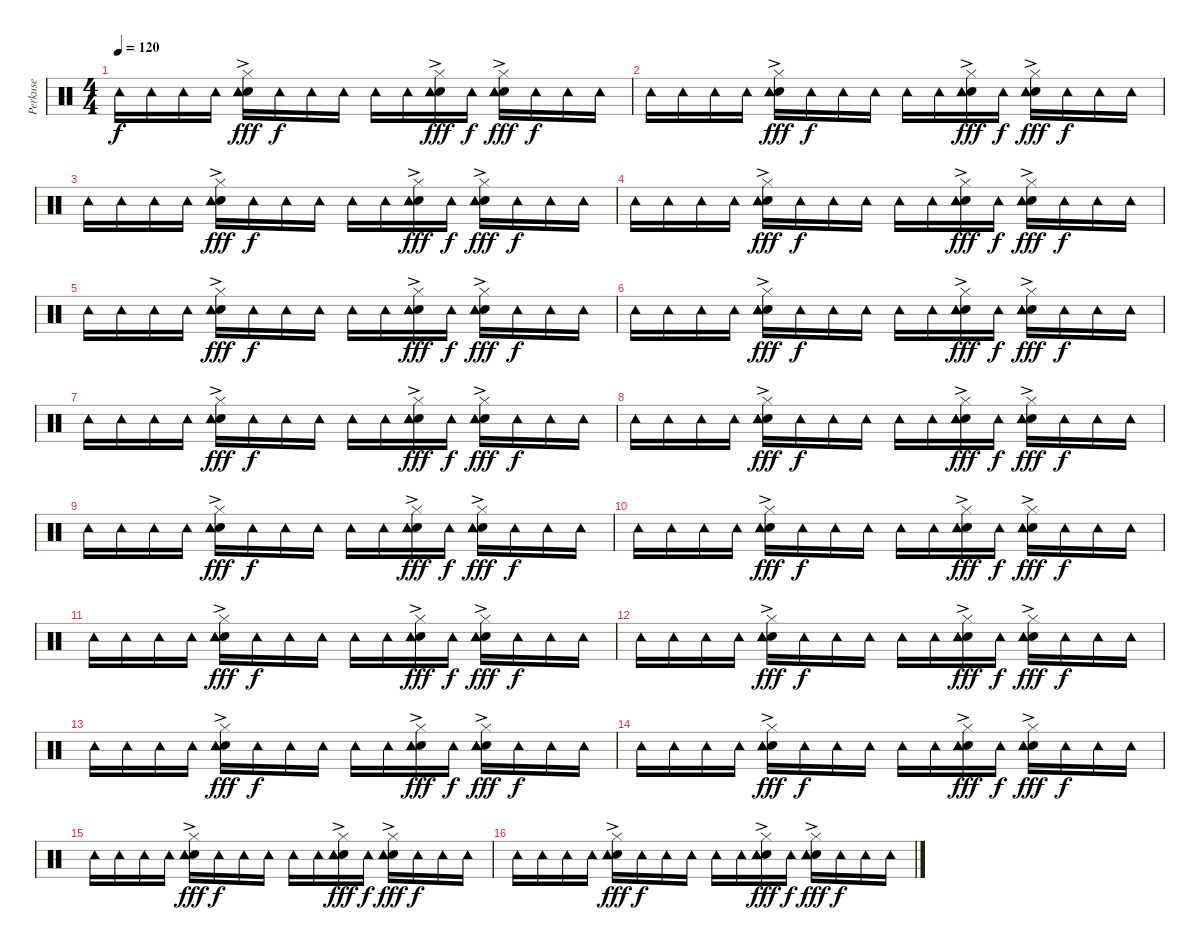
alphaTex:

\track ("Perkuse" "Perkuse") {instrument percussion}
\staff {score}
\articulation defaults
\ts (4 4)
\tempo 120
\clef neutral
\ks c "Tambourine (hit)".16{dy f} "Tambourine (hit)".16 "Tambourine (hit)".16 "Tambourine (hit)".16
("Hi-Hat (closed)" "Hand Clap (hit)" "Tambourine (hit)"{ac} "Tambourine (hit)"{ac} "Tambourine (hit)"{ac}).16{dy fff} "Tambourine (hit)".16{dy f} "Tambourine (hit)".16 "Tambourine (hit)".16 "Tambourine (hit)".16 "Tambourine (hit)".16 ("Hi-Hat (closed)" "Hand Clap (hit)" "Tambourine (hit)"{ac} "Tambourine (hit)"{ac} "Tambourine (hit)"{ac}).16{dy fff} "Tambourine (hit)".16{dy f} ("Hi-Hat (closed)" "Hand Clap (hit)" "Tambourine (hit)"{ac} "Tambourine (hit)"{ac} "Tambourine (hit)"{ac}).16{dy fff} "Tambourine (hit)".16{dy f} "Tambourine (hit)".16 "Tambourine (hit)".16 |
"Tambourine (hit)".16 "Tambourine (hit)".16 "Tambourine (hit)".16 "Tambourine (hit)".16 ("Hi-Hat (closed)" "Hand Clap (hit)" "Tambourine (hit)"{ac} "Tambourine (hit)"{ac} "Tambourine (hit)"{ac}).16{dy fff} "Tambourine (hit)".16{dy f} "Tambourine (hit)".16 "Tambourine (hit)".16 "Tambourine (hit)".16 "Tambourine (hit)".16 ("Hi-Hat (closed)" "Hand Clap (hit)" "Tambourine (hit)"{ac} "Tambourine (hit)"{ac} "Tambourine (hit)"{ac}).16{dy fff} "Tambourine (hit)".16{dy f} ("Hi-Hat (closed)" "Hand Clap (hit)" "Tambourine (hit)"{ac} "Tambourine (hit)"{ac} "Tambourine (hit)"{ac}).16{dy fff} "Tambourine (hit)".16{dy f} "Tambourine (hit)".16 "Tambourine (hit)".16 |
"Tambourine (hit)".16 "Tambourine (hit)".16 "Tambourine (hit)".16 "Tambourine (hit)".16 ("Hi-Hat (closed)" "Hand Clap (hit)" "Tambourine (hit)"{ac} "Tambourine (hit)"{ac} "Tambourine (hit)"{ac}).16{dy fff} "Tambourine (hit)".16{dy f} "Tambourine (hit)".16 "Tambourine (hit)".16 "Tambourine (hit)".16 "Tambourine (hit)".16 ("Hi-Hat (closed)" "Hand Clap (hit)" "Tambourine (hit)"{ac} "Tambourine (hit)"{ac} "Tambourine (hit)"{ac}).16{dy fff} "Tambourine (hit)".16{dy f} ("Hi-Hat (closed)" "Hand Clap (hit)" "Tambourine (hit)"{ac} "Tambourine (hit)"{ac} "Tambourine (hit)"{ac}).16{dy fff} "Tambourine (hit)".16{dy f} "Tambourine (hit)".16 "Tambourine (hit)".16 |
"Tambourine (hit)".16 "Tambourine (hit)".16 "Tambourine (hit)".16 "Tambourine (hit)".16 ("Hi-Hat (closed)" "Hand Clap (hit)" "Tambourine (hit)"{ac} "Tambourine (hit)"{ac} "Tambourine (hit)"{ac}).16{dy fff} "Tambourine (hit)".16{dy f} "Tambourine (hit)".16 "Tambourine (hit)".16 "Tambourine (hit)".16 "Tambourine (hit)".16 ("Hi-Hat (closed)" "Hand Clap (hit)" "Tambourine (hit)"{ac} "Tambourine (hit)"{ac} "Tambourine (hit)"{ac}).16{dy fff} "Tambourine (hit)".16{dy f} ("Hi-Hat (closed)" "Hand Clap (hit)" "Tambourine (hit)"{ac} "Tambourine (hit)"{ac} "Tambourine (hit)"{ac}).16{dy fff} "Tambourine (hit)".16{dy f} "Tambourine (hit)".16 "Tambourine (hit)".16 |
"Tambourine (hit)".16 "Tambourine (hit)".16 "Tambourine (hit)".16 "Tambourine (hit)".16 ("Hi-Hat (closed)" "Hand Clap (hit)" "Tambourine (hit)"{ac} "Tambourine (hit)"{ac} "Tambourine (hit)"{ac}).16{dy fff} "Tambourine (hit)".16{dy f} "Tambourine (hit)".16 "Tambourine (hit)".16 "Tambourine (hit)".16 "Tambourine (hit)".16 ("Hi-Hat (closed)" "Hand Clap (hit)" "Tambourine (hit)"{ac} "Tambourine (hit)"{ac} "Tambourine (hit)"{ac}).16{dy fff} "Tambourine (hit)".16{dy f} ("Hi-Hat (closed)" "Hand Clap (hit)" "Tambourine (hit)"{ac} "Tambourine (hit)"{ac} "Tambourine (hit)"{ac}).16{dy fff} "Tambourine (hit)".16{dy f} "Tambourine (hit)".16 "Tambourine (hit)".16 |
"Tambourine (hit)".16 "Tambourine (hit)".16 "Tambourine (hit)".16 "Tambourine (hit)".16 ("Hi-Hat (closed)" "Hand Clap (hit)" "Tambourine (hit)"{ac} "Tambourine (hit)"{ac} "Tambourine (hit)"{ac}).16{dy fff} "Tambourine (hit)".16{dy f} "Tambourine (hit)".16 "Tambourine (hit)".16 "Tambourine (hit)".16 "Tambourine (hit)".16 ("Hi-Hat (closed)" "Hand Clap (hit)" "Tambourine (hit)"{ac} "Tambourine (hit)"{ac} "Tambourine (hit)"{ac}).16{dy fff} "Tambourine (hit)".16{dy f} ("Hi-Hat (closed)" "Hand Clap (hit)" "Tambourine (hit)"{ac} "Tambourine (hit)"{ac} "Tambourine (hit)"{ac}).16{dy fff} "Tambourine (hit)".16{dy f} "Tambourine (hit)".16 "Tambourine (hit)".16 |
"Tambourine (hit)".16 "Tambourine (hit)".16 "Tambourine (hit)".16 "Tambourine (hit)".16 ("Hi-Hat (closed)" "Hand Clap (hit)" "Tambourine (hit)"{ac} "Tambourine (hit)"{ac} "Tambourine (hit)"{ac}).16{dy fff} "Tambourine (hit)".16{dy f} "Tambourine (hit)".16 "Tambourine (hit)".16 "Tambourine (hit)".16 "Tambourine (hit)".16 ("Hi-Hat (closed)" "Hand Clap (hit)" "Tambourine (hit)"{ac} "Tambourine (hit)"{ac} "Tambourine (hit)"{ac}).16{dy fff} "Tambourine (hit)".16{dy f} ("Hi-Hat (closed)" "Hand Clap (hit)" "Tambourine (hit)"{ac} "Tambourine (hit)"{ac} "Tambourine (hit)"{ac}).16{dy fff} "Tambourine (hit)".16{dy f} "Tambourine (hit)".16 "Tambourine (hit)".16 |
"Tambourine (hit)".16 "Tambourine (hit)".16 "Tambourine (hit)".16 "Tambourine (hit)".16 ("Hi-Hat (closed)" "Hand Clap (hit)" "Tambourine (hit)"{ac} "Tambourine (hit)"{ac} "Tambourine (hit)"{ac}).16{dy fff} "Tambourine (hit)".16{dy f} "Tambourine (hit)".16 "Tambourine (hit)".16 "Tambourine (hit)".16 "Tambourine (hit)".16 ("Hi-Hat (closed)" "Hand Clap (hit)" "Tambourine (hit)"{ac} "Tambourine (hit)"{ac} "Tambourine (hit)"{ac}).16{dy fff} "Tambourine (hit)".16{dy f} ("Hi-Hat (closed)" "Hand Clap (hit)" "Tambourine (hit)"{ac} "Tambourine (hit)"{ac} "Tambourine (hit)"{ac}).16{dy fff} "Tambourine (hit)".16{dy f} "Tambourine (hit)".16 "Tambourine (hit)".16 |
"Tambourine (hit)".16 "Tambourine (hit)".16 "Tambourine (hit)".16 "Tambourine (hit)".16 ("Hi-Hat (closed)" "Hand Clap (hit)" "Tambourine (hit)"{ac} "Tambourine (hit)"{ac} "Tambourine (hit)"{ac}).16{dy fff} "Tambourine (hit)".16{dy f} "Tambourine (hit)".16 "Tambourine (hit)".16 "Tambourine (hit)".16 "Tambourine (hit)".16 ("Hi-Hat (closed)" "Hand Clap (hit)" "Tambourine (hit)"{ac} "Tambourine (hit)"{ac} "Tambourine (hit)"{ac}).16{dy fff} "Tambourine (hit)".16{dy f} ("Hi-Hat (closed)" "Hand Clap (hit)" "Tambourine (hit)"{ac} "Tambourine (hit)"{ac} "Tambourine (hit)"{ac}).16{dy fff} "Tambourine (hit)".16{dy f} "Tambourine (hit)".16 "Tambourine (hit)".16 |
"Tambourine (hit)".16 "Tambourine (hit)".16 "Tambourine (hit)".16 "Tambourine (hit)".16 ("Hi-Hat (closed)" "Hand Clap (hit)" "Tambourine (hit)"{ac} "Tambourine (hit)"{ac} "Tambourine (hit)"{ac}).16{dy fff} "Tambourine (hit)".16{dy f} "Tambourine (hit)".16 "Tambourine (hit)".16 "Tambourine (hit)".16 "Tambourine (hit)".16 ("Hi-Hat (closed)" "Hand Clap (hit)" "Tambourine (hit)"{ac} "Tambourine (hit)"{ac} "Tambourine (hit)"{ac}).16{dy fff} "Tambourine (hit)".16{dy f} ("Hi-Hat (closed)" "Hand Clap (hit)" "Tambourine (hit)"{ac} "Tambourine (hit)"{ac} "Tambourine (hit)"{ac}).16{dy fff} "Tambourine (hit)".16{dy f} "Tambourine (hit)".16 "Tambourine (hit)".16 |
"Tambourine (hit)".16 "Tambourine (hit)".16 "Tambourine (hit)".16 "Tambourine (hit)".16 ("Hi-Hat (closed)" "Hand Clap (hit)" "Tambourine (hit)"{ac} "Tambourine (hit)"{ac} "Tambourine (hit)"{ac}).16{dy fff} "Tambourine (hit)".16{dy f} "Tambourine (hit)".16 "Tambourine (hit)".16 "Tambourine (hit)".16 "Tambourine (hit)".16 ("Hi-Hat (closed)" "Hand Clap (hit)" "Tambourine (hit)"{ac} "Tambourine (hit)"{ac} "Tambourine (hit)"{ac}).16{dy fff} "Tambourine (hit)".16{dy f} ("Hi-Hat (closed)" "Hand Clap (hit)" "Tambourine (hit)"{ac} "Tambourine (hit)"{ac} "Tambourine (hit)"{ac}).16{dy fff} "Tambourine (hit)".16{dy f} "Tambourine (hit)".16 "Tambourine (hit)".16 |
"Tambourine (hit)".16 "Tambourine (hit)".16 "Tambourine (hit)".16 "Tambourine (hit)".16 ("Hi-Hat (closed)" "Hand Clap (hit)" "Tambourine (hit)"{ac} "Tambourine (hit)"{ac} "Tambourine (hit)"{ac}).16{dy fff} "Tambourine (hit)".16{dy f} "Tambourine (hit)".16 "Tambourine (hit)".16 "Tambourine (hit)".16 "Tambourine (hit)".16 ("Hi-Hat (closed)" "Hand Clap (hit)" "Tambourine (hit)"{ac} "Tambourine (hit)"{ac} "Tambourine (hit)"{ac}).16{dy fff} "Tambourine (hit)".16{dy f} ("Hi-Hat (closed)" "Hand Clap (hit)" "Tambourine (hit)"{ac} "Tambourine (hit)"{ac} "Tambourine (hit)"{ac}).16{dy fff} "Tambourine (hit)".16{dy f} "Tambourine (hit)".16 "Tambourine (hit)".16 |
"Tambourine (hit)".16 "Tambourine (hit)".16 "Tambourine (hit)".16 "Tambourine (hit)".16 ("Hi-Hat (closed)" "Hand Clap (hit)" "Tambourine (hit)"{ac} "Tambourine (hit)"{ac} "Tambourine (hit)"{ac}).16{dy fff} "Tambourine (hit)".16{dy f} "Tambourine (hit)".16 "Tambourine (hit)".16 "Tambourine (hit)".16 "Tambourine (hit)".16 ("Hi-Hat (closed)" "Hand Clap (hit)" "Tambourine (hit)"{ac} "Tambourine (hit)"{ac} "Tambourine (hit)"{ac}).16{dy fff} "Tambourine (hit)".16{dy f} ("Hi-Hat (closed)" "Hand Clap (hit)" "Tambourine (hit)"{ac} "Tambourine (hit)"{ac} "Tambourine (hit)"{ac}).16{dy fff} "Tambourine (hit)".16{dy f} "Tambourine (hit)".16 "Tambourine (hit)".16 |
"Tambourine (hit)".16 "Tambourine (hit)".16 "Tambourine (hit)".16 "Tambourine (hit)".16 ("Hi-Hat (closed)" "Hand Clap (hit)" "Tambourine (hit)"{ac} "Tambourine (hit)"{ac} "Tambourine (hit)"{ac}).16{dy fff} "Tambourine (hit)".16{dy f} "Tambourine (hit)".16 "Tambourine (hit)".16 "Tambourine (hit)".16 "Tambourine (hit)".16 ("Hi-Hat (closed)" "Hand Clap (hit)" "Tambourine (hit)"{ac} "Tambourine (hit)"{ac} "Tambourine (hit)"{ac}).16{dy fff} "Tambourine (hit)".16{dy f} ("Hi-Hat (closed)" "Hand Clap (hit)" "Tambourine (hit)"{ac} "Tambourine (hit)"{ac} "Tambourine (hit)"{ac}).16{dy fff} "Tambourine (hit)".16{dy f} "Tambourine (hit)".16 "Tambourine (hit)".16 |
"Tambourine (hit)".16 "Tambourine (hit)".16 "Tambourine (hit)".16 "Tambourine (hit)".16 ("Hi-Hat (closed)" "Hand Clap (hit)" "Tambourine (hit)"{ac} "Tambourine (hit)"{ac} "Tambourine (hit)"{ac}).16{dy fff} "Tambourine (hit)".16{dy f} "Tambourine (hit)".16 "Tambourine (hit)".16 "Tambourine (hit)".16 "Tambourine (hit)".16 ("Hi-Hat (closed)" "Hand Clap (hit)" "Tambourine (hit)"{ac} "Tambourine (hit)"{ac} "Tambourine (hit)"{ac}).16{dy fff} "Tambourine (hit)".16{dy f} ("Hi-Hat (closed)" "Hand Clap (hit)" "Tambourine (hit)"{ac} "Tambourine (hit)"{ac} "Tambourine (hit)"{ac}).16{dy fff} "Tambourine (hit)".16{dy f} "Tambourine (hit)".16 "Tambourine (hit)".16 |
"Tambourine (hit)".16 "Tambourine (hit)".16 "Tambourine (hit)".16 "Tambourine (hit)".16 ("Hi-Hat (closed)" "Hand Clap (hit)" "Tambourine (hit)"{ac} "Tambourine (hit)"{ac} "Tambourine (hit)"{ac}).16{dy fff} "Tambourine (hit)".16{dy f} "Tambourine (hit)".16 "Tambourine (hit)".16 "Tambourine (hit)".16 "Tambourine (hit)".16 ("Hi-Hat (closed)" "Hand Clap (hit)" "Tambourine (hit)"{ac} "Tambourine (hit)"{ac} "Tambourine (hit)"{ac}).16{dy fff} "Tambourine (hit)".16{dy f} ("Hi-Hat (closed)" "Hand Clap (hit)" "Tambourine (hit)"{ac} "Tambourine (hit)"{ac} "Tambourine (hit)"{ac}).16{dy fff} "Tambourine (hit)".16{dy f} "Tambourine (hit)".16 "Tambourine (hit)".16
